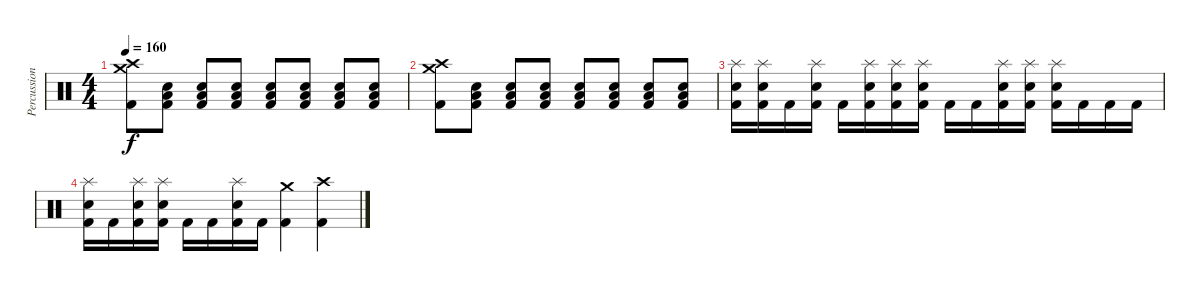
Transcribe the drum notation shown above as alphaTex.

\track ("Percussion" "Percussion") {instrument percussion}
\staff {score}
\articulation defaults
\ts (4 4)
\tempo 160
\clef neutral
\ks c
("Crash medium (hit)" "Crash high (hit)" "Kick (hit) 2").8{dy f} ("Electric Snare (hit)" "Low Floor Tom (hit)" "Kick (hit) 2").8 ("Electric Snare (hit)" "Low Floor Tom (hit)" "Kick (hit) 2").8 ("Electric Snare (hit)" "Low Floor Tom (hit)" "Kick (hit) 2").8 ("Electric Snare (hit)" "Low Floor Tom (hit)" "Kick (hit) 2").8{volume 16} ("Electric Snare (hit)" "Low Floor Tom (hit)" "Kick (hit) 2").8 ("Electric Snare (hit)" "Low Floor Tom (hit)" "Kick (hit) 2").8 ("Electric Snare (hit)" "Low Floor Tom (hit)" "Kick (hit) 2").8 |
("Crash medium (hit)" "Crash high (hit)" "Kick (hit) 2").8 ("Electric Snare (hit)" "Low Floor Tom (hit)" "Kick (hit) 2").8{volume 13} ("Electric Snare (hit)" "Low Floor Tom (hit)" "Kick (hit) 2").8 ("Electric Snare (hit)" "Low Floor Tom (hit)" "Kick (hit) 2").8 ("Electric Snare (hit)" "Low Floor Tom (hit)" "Kick (hit) 2").8{volume 16} ("Electric Snare (hit)" "Low Floor Tom (hit)" "Kick (hit) 2").8 ("Electric Snare (hit)" "Low Floor Tom (hit)" "Kick (hit) 2").8 ("Electric Snare (hit)" "Low Floor Tom (hit)" "Kick (hit) 2").8 |
("Splash (hit)" "Electric Snare (hit)" "Kick (hit) 2").16{volume 13} ("Splash (hit)" "Electric Snare (hit)" "Kick (hit) 2").16 "Kick (hit) 2".16 ("Splash (hit)" "Electric Snare (hit)" "Kick (hit) 2").16 "Kick (hit) 2".16 ("Splash (hit)" "Electric Snare (hit)" "Kick (hit) 2").16 ("Splash (hit)" "Electric Snare (hit)" "Kick (hit) 2").16 ("Splash (hit)" "Electric Snare (hit)" "Kick (hit) 2").16 "Kick (hit) 2".16 "Kick (hit) 2".16 ("Splash (hit)" "Electric Snare (hit)" "Kick (hit) 2").16 ("Splash (hit)" "Electric Snare (hit)" "Kick (hit) 2").16 ("Splash (hit)" "Electric Snare (hit)" "Kick (hit) 2").16 "Kick (hit) 2".16 "Kick (hit) 2".16 "Kick (hit) 2".16 |
("Splash (hit)" "Electric Snare (hit)" "Kick (hit) 2").16 "Kick (hit) 2".16 ("Splash (hit)" "Electric Snare (hit)" "Kick (hit) 2").16 ("Splash (hit)" "Electric Snare (hit)" "Kick (hit) 2").16 "Kick (hit) 2".16 "Kick (hit) 2".16 ("Splash (hit)" "Electric Snare (hit)" "Kick (hit) 2").16 "Kick (hit) 2".16 ("Crash medium (hit)" "Kick (hit) 2").4 ("Crash high (hit)" "Kick (hit) 2").4
